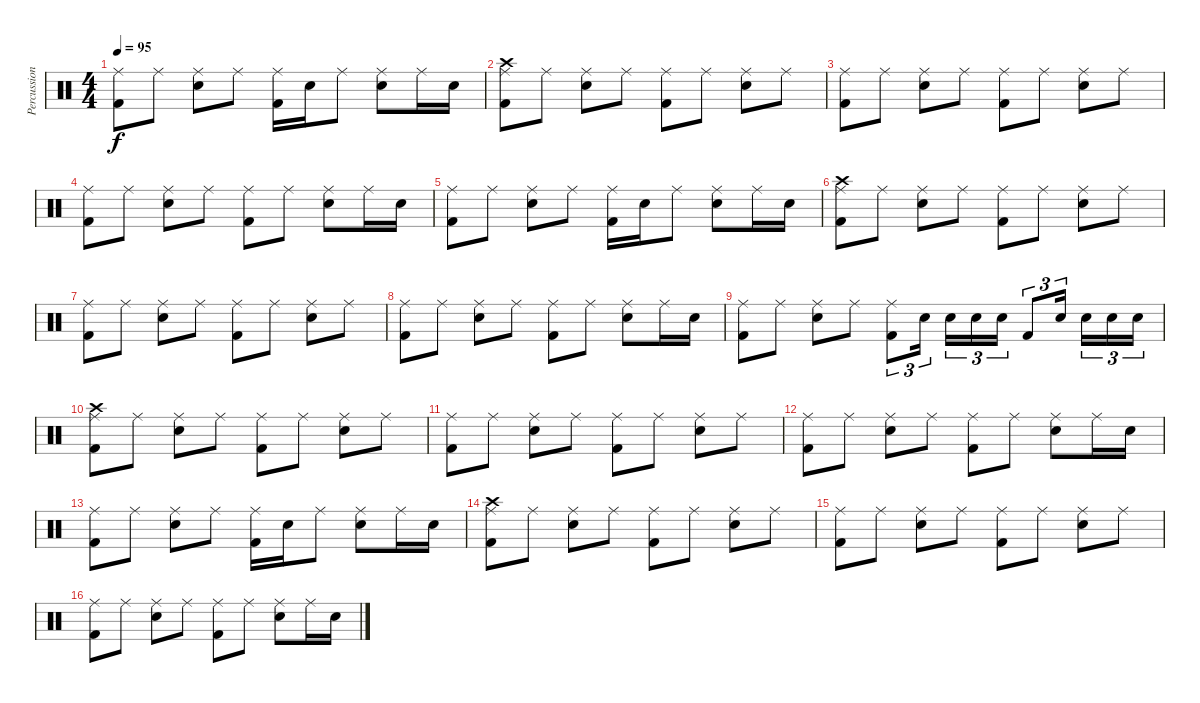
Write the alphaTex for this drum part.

\track ("Percussion" "Percussion") {instrument percussion}
\staff {score}
\articulation defaults
\ts (4 4)
\tempo 95
\clef neutral
\ks c
("Ride (middle)" "Kick (hit) 2").8{dy f} "Ride (middle)".8 ("Ride (middle)" "Electric Snare (hit)").8 "Ride (middle)".8 ("Ride (middle)" "Kick (hit) 2").16 "Electric Snare (hit)".16 "Ride (middle)".8 ("Ride (middle)" "Electric Snare (hit)").8 "Ride (middle)".16 "Electric Snare (hit)".16 |
("Crash high (hit)" "Ride (middle)" "Kick (hit) 2").8 "Ride (middle)".8 ("Ride (middle)" "Electric Snare (hit)").8 "Ride (middle)".8 ("Ride (middle)" "Kick (hit) 2").8 "Ride (middle)".8 ("Ride (middle)" "Electric Snare (hit)").8 "Ride (middle)".8 |
("Ride (middle)" "Kick (hit) 2").8 "Ride (middle)".8 ("Ride (middle)" "Electric Snare (hit)").8 "Ride (middle)".8 ("Ride (middle)" "Kick (hit) 2").8 "Ride (middle)".8 ("Ride (middle)" "Electric Snare (hit)").8 "Ride (middle)".8 |
("Ride (middle)" "Kick (hit) 2").8 "Ride (middle)".8 ("Ride (middle)" "Electric Snare (hit)").8 "Ride (middle)".8 ("Ride (middle)" "Kick (hit) 2").8 "Ride (middle)".8 ("Ride (middle)" "Electric Snare (hit)").8 "Ride (middle)".16 "Electric Snare (hit)".16 |
("Ride (middle)" "Kick (hit) 2").8 "Ride (middle)".8 ("Ride (middle)" "Electric Snare (hit)").8 "Ride (middle)".8 ("Ride (middle)" "Kick (hit) 2").16 "Electric Snare (hit)".16 "Ride (middle)".8 ("Ride (middle)" "Electric Snare (hit)").8 "Ride (middle)".16 "Electric Snare (hit)".16 |
("Crash high (hit)" "Ride (middle)" "Kick (hit) 2").8 "Ride (middle)".8 ("Ride (middle)" "Electric Snare (hit)").8 "Ride (middle)".8 ("Ride (middle)" "Kick (hit) 2").8 "Ride (middle)".8 ("Ride (middle)" "Electric Snare (hit)").8 "Ride (middle)".8 |
("Ride (middle)" "Kick (hit) 2").8 "Ride (middle)".8 ("Ride (middle)" "Electric Snare (hit)").8 "Ride (middle)".8 ("Ride (middle)" "Kick (hit) 2").8 "Ride (middle)".8 ("Ride (middle)" "Electric Snare (hit)").8 "Ride (middle)".8 |
("Ride (middle)" "Kick (hit) 2").8 "Ride (middle)".8 ("Ride (middle)" "Electric Snare (hit)").8 "Ride (middle)".8 ("Ride (middle)" "Kick (hit) 2").8 "Ride (middle)".8 ("Ride (middle)" "Electric Snare (hit)").8 "Ride (middle)".16 "Electric Snare (hit)".16 |
("Ride (middle)" "Kick (hit) 2").8 "Ride (middle)".8 ("Ride (middle)" "Electric Snare (hit)").8 "Ride (middle)".8 ("Ride (middle)" "Kick (hit) 2").8{tu (3 2)} "Electric Snare (hit)".16{tu (3 2) beam splitsecondary} "Electric Snare (hit)".16{tu (3 2)} "Electric Snare (hit)".16{tu (3 2)} "Electric Snare (hit)".16{tu (3 2)} "Kick (hit) 2".8{tu (3 2)} "Electric Snare (hit)".16{tu (3 2) beam splitsecondary} "Electric Snare (hit)".16{tu (3 2)} "Electric Snare (hit)".16{tu (3 2)} "Electric Snare (hit)".16{tu (3 2)} |
("Crash high (hit)" "Ride (middle)" "Kick (hit) 2").8 "Ride (middle)".8 ("Ride (middle)" "Electric Snare (hit)").8 "Ride (middle)".8 ("Ride (middle)" "Kick (hit) 2").8 "Ride (middle)".8 ("Ride (middle)" "Electric Snare (hit)").8 "Ride (middle)".8 |
("Ride (middle)" "Kick (hit) 2").8 "Ride (middle)".8 ("Ride (middle)" "Electric Snare (hit)").8 "Ride (middle)".8 ("Ride (middle)" "Kick (hit) 2").8 "Ride (middle)".8 ("Ride (middle)" "Electric Snare (hit)").8 "Ride (middle)".8 |
("Ride (middle)" "Kick (hit) 2").8 "Ride (middle)".8 ("Ride (middle)" "Electric Snare (hit)").8 "Ride (middle)".8 ("Ride (middle)" "Kick (hit) 2").8 "Ride (middle)".8 ("Ride (middle)" "Electric Snare (hit)").8 "Ride (middle)".16 "Electric Snare (hit)".16 |
("Ride (middle)" "Kick (hit) 2").8 "Ride (middle)".8 ("Ride (middle)" "Electric Snare (hit)").8 "Ride (middle)".8 ("Ride (middle)" "Kick (hit) 2").16 "Electric Snare (hit)".16 "Ride (middle)".8 ("Ride (middle)" "Electric Snare (hit)").8 "Ride (middle)".16 "Electric Snare (hit)".16 |
("Crash high (hit)" "Ride (middle)" "Kick (hit) 2").8 "Ride (middle)".8 ("Ride (middle)" "Electric Snare (hit)").8 "Ride (middle)".8 ("Ride (middle)" "Kick (hit) 2").8 "Ride (middle)".8 ("Ride (middle)" "Electric Snare (hit)").8 "Ride (middle)".8 |
("Ride (middle)" "Kick (hit) 2").8 "Ride (middle)".8 ("Ride (middle)" "Electric Snare (hit)").8 "Ride (middle)".8 ("Ride (middle)" "Kick (hit) 2").8 "Ride (middle)".8 ("Ride (middle)" "Electric Snare (hit)").8 "Ride (middle)".8 |
("Ride (middle)" "Kick (hit) 2").8 "Ride (middle)".8 ("Ride (middle)" "Electric Snare (hit)").8 "Ride (middle)".8 ("Ride (middle)" "Kick (hit) 2").8 "Ride (middle)".8 ("Ride (middle)" "Electric Snare (hit)").8 "Ride (middle)".16 "Electric Snare (hit)".16
